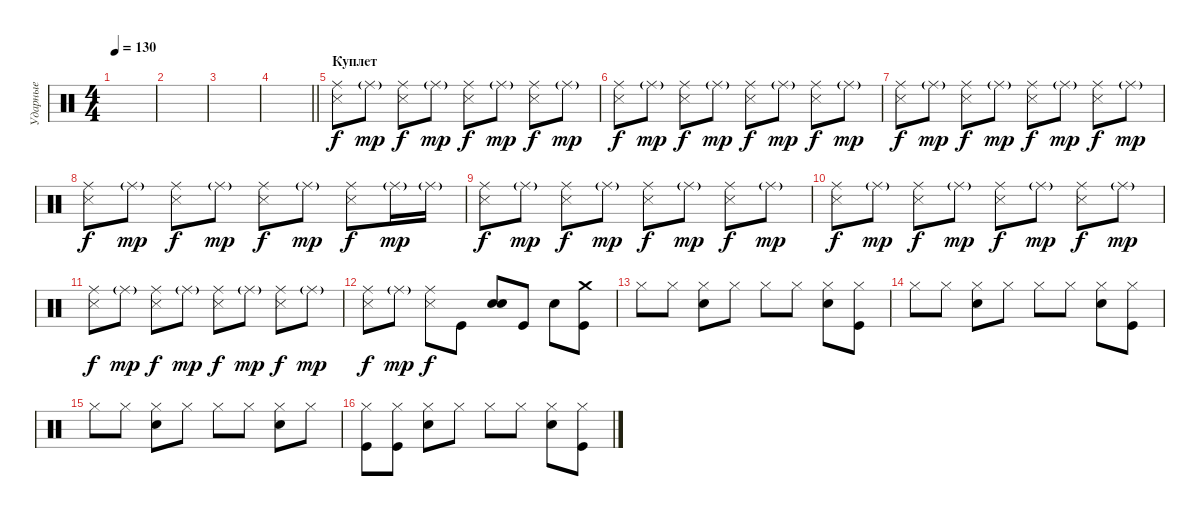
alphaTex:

\track ("Ударные" "Ударные") {instrument percussion}
\staff {score}
\articulation defaults
\ts (4 4)
\tempo 130
\clef neutral
\ks c
|
|
|
\barLineRight lightlight
|
\section ("" "Куплет")
("Metronome (hit)" "Ride (middle)").8{volume 10} "Ride (middle)"{g}.8{dy mp} ("Metronome (hit)" "Ride (middle)").8{dy f} "Ride (middle)"{g}.8{dy mp} ("Metronome (hit)" "Ride (middle)").8{dy f} "Ride (middle)"{g}.8{dy mp} ("Metronome (hit)" "Ride (middle)").8{dy f} "Ride (middle)"{g}.8{dy mp} |
("Metronome (hit)" "Ride (middle)").8{dy f} "Ride (middle)"{g}.8{dy mp} ("Metronome (hit)" "Ride (middle)").8{dy f} "Ride (middle)"{g}.8{dy mp} ("Metronome (hit)" "Ride (middle)").8{dy f} "Ride (middle)"{g}.8{dy mp} ("Metronome (hit)" "Ride (middle)").8{dy f} "Ride (middle)"{g}.8{dy mp} |
("Metronome (hit)" "Ride (middle)").8{dy f} "Ride (middle)"{g}.8{dy mp} ("Metronome (hit)" "Ride (middle)").8{dy f} "Ride (middle)"{g}.8{dy mp} ("Metronome (hit)" "Ride (middle)").8{dy f} "Ride (middle)"{g}.8{dy mp} ("Metronome (hit)" "Ride (middle)").8{dy f} "Ride (middle)"{g}.8{dy mp} |
("Metronome (hit)" "Ride (middle)").8{dy f} "Ride (middle)"{g}.8{dy mp} ("Metronome (hit)" "Ride (middle)").8{dy f} "Ride (middle)"{g}.8{dy mp} ("Metronome (hit)" "Ride (middle)").8{dy f} "Ride (middle)"{g}.8{dy mp} ("Metronome (hit)" "Ride (middle)").8{dy f} "Ride (middle)"{g}.16{dy mp} "Ride (middle)"{g}.16 |
("Metronome (hit)" "Ride (middle)").8{dy f} "Ride (middle)"{g}.8{dy mp} ("Metronome (hit)" "Ride (middle)").8{dy f} "Ride (middle)"{g}.8{dy mp} ("Metronome (hit)" "Ride (middle)").8{dy f} "Ride (middle)"{g}.8{dy mp} ("Metronome (hit)" "Ride (middle)").8{dy f} "Ride (middle)"{g}.8{dy mp} |
("Metronome (hit)" "Ride (middle)").8{dy f} "Ride (middle)"{g}.8{dy mp} ("Metronome (hit)" "Ride (middle)").8{dy f} "Ride (middle)"{g}.8{dy mp} ("Metronome (hit)" "Ride (middle)").8{dy f} "Ride (middle)"{g}.8{dy mp} ("Metronome (hit)" "Ride (middle)").8{dy f} "Ride (middle)"{g}.8{dy mp} |
("Metronome (hit)" "Ride (middle)").8{dy f} "Ride (middle)"{g}.8{dy mp} ("Metronome (hit)" "Ride (middle)").8{dy f} "Ride (middle)"{g}.8{dy mp} ("Metronome (hit)" "Ride (middle)").8{dy f} "Ride (middle)"{g}.8{dy mp} ("Metronome (hit)" "Ride (middle)").8{dy f} "Ride (middle)"{g}.8{dy mp} |
("Metronome (hit)" "Ride (middle)").8{dy f} "Ride (middle)"{g}.8{dy mp} ("Metronome (hit)" "Ride (middle)").8{dy f} "Kick (hit)".8{volume 16} ("Snare (hit) 2" "Snare (hit) 2").8{bd 120} "Kick (hit)".8 "Snare (hit) 2".8 ("Kick (hit)" "Crash medium (hit)").8 |
"Hi-Hat (closed)".8 "Hi-Hat (closed)".8 ("Snare (hit) 2" "Hi-Hat (closed)").8 "Hi-Hat (closed)".8 "Hi-Hat (closed)".8 "Hi-Hat (closed)".8 ("Snare (hit) 2" "Hi-Hat (closed)").8 ("Kick (hit)" "Hi-Hat (closed)").8 |
"Hi-Hat (closed)".8 "Hi-Hat (closed)".8 ("Snare (hit) 2" "Hi-Hat (closed)").8 "Hi-Hat (closed)".8 "Hi-Hat (closed)".8 "Hi-Hat (closed)".8 ("Snare (hit) 2" "Hi-Hat (closed)").8 ("Kick (hit)" "Hi-Hat (closed)").8 |
"Hi-Hat (closed)".8 "Hi-Hat (closed)".8 ("Snare (hit) 2" "Hi-Hat (closed)").8 "Hi-Hat (closed)".8 "Hi-Hat (closed)".8 "Hi-Hat (closed)".8 ("Snare (hit) 2" "Hi-Hat (closed)").8 "Hi-Hat (closed)".8 |
("Kick (hit)" "Hi-Hat (closed)").8 ("Kick (hit)" "Hi-Hat (closed)").8 ("Snare (hit) 2" "Hi-Hat (closed)").8 "Hi-Hat (closed)".8 "Hi-Hat (closed)".8 "Hi-Hat (closed)".8 ("Snare (hit) 2" "Hi-Hat (closed)").8 ("Kick (hit)" "Hi-Hat (closed)").8
